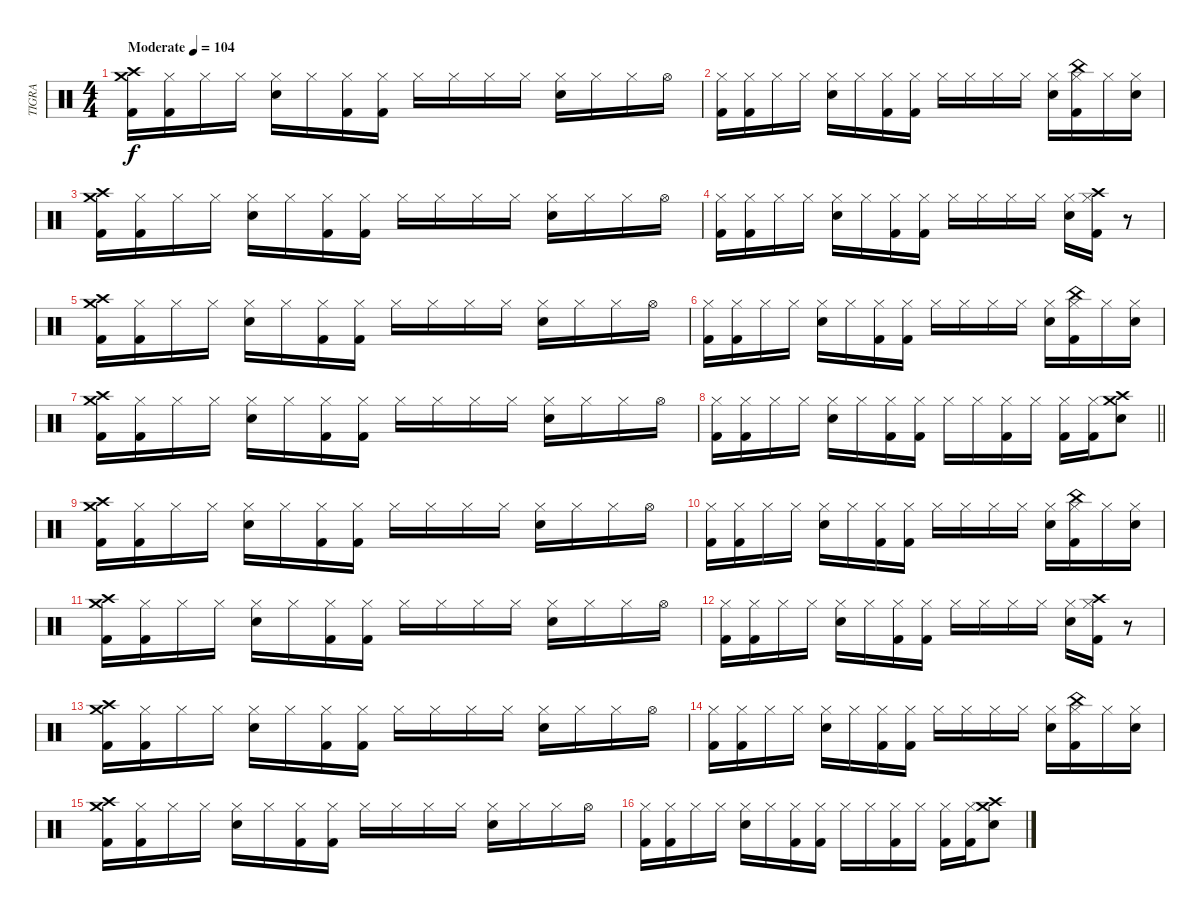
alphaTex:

\track ("TIGRA" "TIGRA") {instrument percussion}
\staff {score}
\articulation defaults
\ts (4 4)
\tempo (104 "Moderate")
\clef neutral
\ks c
("Crash medium (hit)" "Crash high (hit)" "Kick (hit) 2").16{dy f} ("Hi-Hat (closed)" "Kick (hit) 2").16 "Hi-Hat (closed)".16 "Hi-Hat (closed)".16 ("Hi-Hat (closed)" "Snare (hit) 2").16 "Hi-Hat (closed)".16 ("Hi-Hat (closed)" "Kick (hit) 2").16 ("Hi-Hat (closed)" "Kick (hit) 2").16 "Hi-Hat (closed)".16 "Hi-Hat (closed)".16 "Hi-Hat (closed)".16 "Hi-Hat (closed)".16 ("Hi-Hat (closed)" "Snare (hit) 2").16 "Hi-Hat (closed)".16 "Hi-Hat (closed)".16 "Hi-Hat (open)".16 |
("Hi-Hat (closed)" "Kick (hit) 2").16 ("Hi-Hat (closed)" "Kick (hit) 2").16 "Hi-Hat (closed)".16 "Hi-Hat (closed)".16 ("Hi-Hat (closed)" "Snare (hit) 2").16 "Hi-Hat (closed)".16 ("Hi-Hat (closed)" "Kick (hit) 2").16 ("Hi-Hat (closed)" "Kick (hit) 2").16 "Hi-Hat (closed)".16 "Hi-Hat (closed)".16 "Hi-Hat (closed)".16 "Hi-Hat (closed)".16 ("Hi-Hat (closed)" "Snare (hit) 2").16 ("Hi-Hat (closed)" "China (hit)" "Kick (hit) 2").16 "Hi-Hat (closed)".16 ("Hi-Hat (closed)" "Snare (hit) 2").16 |
("Crash medium (hit)" "Crash high (hit)" "Kick (hit) 2").16 ("Hi-Hat (closed)" "Kick (hit) 2").16 "Hi-Hat (closed)".16 "Hi-Hat (closed)".16 ("Hi-Hat (closed)" "Snare (hit) 2").16 "Hi-Hat (closed)".16 ("Hi-Hat (closed)" "Kick (hit) 2").16 ("Hi-Hat (closed)" "Kick (hit) 2").16 "Hi-Hat (closed)".16 "Hi-Hat (closed)".16 "Hi-Hat (closed)".16 "Hi-Hat (closed)".16 ("Hi-Hat (closed)" "Snare (hit) 2").16 "Hi-Hat (closed)".16 "Hi-Hat (closed)".16 "Hi-Hat (open)".16 |
("Hi-Hat (closed)" "Kick (hit) 2").16 ("Hi-Hat (closed)" "Kick (hit) 2").16 "Hi-Hat (closed)".16 "Hi-Hat (closed)".16 ("Hi-Hat (closed)" "Snare (hit) 2").16 "Hi-Hat (closed)".16 ("Hi-Hat (closed)" "Kick (hit) 2").16 ("Hi-Hat (closed)" "Kick (hit) 2").16 "Hi-Hat (closed)".16 "Hi-Hat (closed)".16 "Hi-Hat (closed)".16 "Hi-Hat (closed)".16 ("Hi-Hat (closed)" "Snare (hit) 2").16 ("Hi-Hat (closed)" "Crash high (hit)" "Kick (hit) 2").16 r.8 |
("Crash medium (hit)" "Crash high (hit)" "Kick (hit) 2").16 ("Hi-Hat (closed)" "Kick (hit) 2").16 "Hi-Hat (closed)".16 "Hi-Hat (closed)".16 ("Hi-Hat (closed)" "Snare (hit) 2").16 "Hi-Hat (closed)".16 ("Hi-Hat (closed)" "Kick (hit) 2").16 ("Hi-Hat (closed)" "Kick (hit) 2").16 "Hi-Hat (closed)".16 "Hi-Hat (closed)".16 "Hi-Hat (closed)".16 "Hi-Hat (closed)".16 ("Hi-Hat (closed)" "Snare (hit) 2").16 "Hi-Hat (closed)".16 "Hi-Hat (closed)".16 "Hi-Hat (open)".16 |
("Hi-Hat (closed)" "Kick (hit) 2").16 ("Hi-Hat (closed)" "Kick (hit) 2").16 "Hi-Hat (closed)".16 "Hi-Hat (closed)".16 ("Hi-Hat (closed)" "Snare (hit) 2").16 "Hi-Hat (closed)".16 ("Hi-Hat (closed)" "Kick (hit) 2").16 ("Hi-Hat (closed)" "Kick (hit) 2").16 "Hi-Hat (closed)".16 "Hi-Hat (closed)".16 "Hi-Hat (closed)".16 "Hi-Hat (closed)".16 ("Hi-Hat (closed)" "Snare (hit) 2").16 ("Hi-Hat (closed)" "China (hit)" "Kick (hit) 2").16 "Hi-Hat (closed)".16 ("Hi-Hat (closed)" "Snare (hit) 2").16 |
("Crash medium (hit)" "Crash high (hit)" "Kick (hit) 2").16 ("Hi-Hat (closed)" "Kick (hit) 2").16 "Hi-Hat (closed)".16 "Hi-Hat (closed)".16 ("Hi-Hat (closed)" "Snare (hit) 2").16 "Hi-Hat (closed)".16 ("Hi-Hat (closed)" "Kick (hit) 2").16 ("Hi-Hat (closed)" "Kick (hit) 2").16 "Hi-Hat (closed)".16 "Hi-Hat (closed)".16 "Hi-Hat (closed)".16 "Hi-Hat (closed)".16 ("Hi-Hat (closed)" "Snare (hit) 2").16 "Hi-Hat (closed)".16 "Hi-Hat (closed)".16 "Hi-Hat (open)".16 |
\barLineRight lightlight
("Hi-Hat (closed)" "Kick (hit) 2").16 ("Hi-Hat (closed)" "Kick (hit) 2").16 "Hi-Hat (closed)".16 "Hi-Hat (closed)".16 ("Hi-Hat (closed)" "Snare (hit) 2").16 "Hi-Hat (closed)".16 ("Hi-Hat (closed)" "Kick (hit) 2").16 ("Hi-Hat (closed)" "Kick (hit) 2").16 "Hi-Hat (closed)".16 "Hi-Hat (closed)".16 ("Hi-Hat (closed)" "Kick (hit) 2").16 "Hi-Hat (closed)".16 ("Hi-Hat (closed)" "Kick (hit) 2").16 ("Hi-Hat (closed)" "Kick (hit) 2").16 ("Crash medium (hit)" "Crash high (hit)" "Snare (hit) 2").8 |
("Crash medium (hit)" "Crash high (hit)" "Kick (hit) 2").16 ("Hi-Hat (closed)" "Kick (hit) 2").16 "Hi-Hat (closed)".16 "Hi-Hat (closed)".16 ("Hi-Hat (closed)" "Snare (hit) 2").16 "Hi-Hat (closed)".16 ("Hi-Hat (closed)" "Kick (hit) 2").16 ("Hi-Hat (closed)" "Kick (hit) 2").16 "Hi-Hat (closed)".16 "Hi-Hat (closed)".16 "Hi-Hat (closed)".16 "Hi-Hat (closed)".16 ("Hi-Hat (closed)" "Snare (hit) 2").16 "Hi-Hat (closed)".16 "Hi-Hat (closed)".16 "Hi-Hat (open)".16 |
("Hi-Hat (closed)" "Kick (hit) 2").16 ("Hi-Hat (closed)" "Kick (hit) 2").16 "Hi-Hat (closed)".16 "Hi-Hat (closed)".16 ("Hi-Hat (closed)" "Snare (hit) 2").16 "Hi-Hat (closed)".16 ("Hi-Hat (closed)" "Kick (hit) 2").16 ("Hi-Hat (closed)" "Kick (hit) 2").16 "Hi-Hat (closed)".16 "Hi-Hat (closed)".16 "Hi-Hat (closed)".16 "Hi-Hat (closed)".16 ("Hi-Hat (closed)" "Snare (hit) 2").16 ("Hi-Hat (closed)" "China (hit)" "Kick (hit) 2").16 "Hi-Hat (closed)".16 ("Hi-Hat (closed)" "Snare (hit) 2").16 |
("Crash medium (hit)" "Crash high (hit)" "Kick (hit) 2").16 ("Hi-Hat (closed)" "Kick (hit) 2").16 "Hi-Hat (closed)".16 "Hi-Hat (closed)".16 ("Hi-Hat (closed)" "Snare (hit) 2").16 "Hi-Hat (closed)".16 ("Hi-Hat (closed)" "Kick (hit) 2").16 ("Hi-Hat (closed)" "Kick (hit) 2").16 "Hi-Hat (closed)".16 "Hi-Hat (closed)".16 "Hi-Hat (closed)".16 "Hi-Hat (closed)".16 ("Hi-Hat (closed)" "Snare (hit) 2").16 "Hi-Hat (closed)".16 "Hi-Hat (closed)".16 "Hi-Hat (open)".16 |
("Hi-Hat (closed)" "Kick (hit) 2").16 ("Hi-Hat (closed)" "Kick (hit) 2").16 "Hi-Hat (closed)".16 "Hi-Hat (closed)".16 ("Hi-Hat (closed)" "Snare (hit) 2").16 "Hi-Hat (closed)".16 ("Hi-Hat (closed)" "Kick (hit) 2").16 ("Hi-Hat (closed)" "Kick (hit) 2").16 "Hi-Hat (closed)".16 "Hi-Hat (closed)".16 "Hi-Hat (closed)".16 "Hi-Hat (closed)".16 ("Hi-Hat (closed)" "Snare (hit) 2").16 ("Hi-Hat (closed)" "Crash high (hit)" "Kick (hit) 2").16 r.8 |
("Crash medium (hit)" "Crash high (hit)" "Kick (hit) 2").16 ("Hi-Hat (closed)" "Kick (hit) 2").16 "Hi-Hat (closed)".16 "Hi-Hat (closed)".16 ("Hi-Hat (closed)" "Snare (hit) 2").16 "Hi-Hat (closed)".16 ("Hi-Hat (closed)" "Kick (hit) 2").16 ("Hi-Hat (closed)" "Kick (hit) 2").16 "Hi-Hat (closed)".16 "Hi-Hat (closed)".16 "Hi-Hat (closed)".16 "Hi-Hat (closed)".16 ("Hi-Hat (closed)" "Snare (hit) 2").16 "Hi-Hat (closed)".16 "Hi-Hat (closed)".16 "Hi-Hat (open)".16 |
("Hi-Hat (closed)" "Kick (hit) 2").16 ("Hi-Hat (closed)" "Kick (hit) 2").16 "Hi-Hat (closed)".16 "Hi-Hat (closed)".16 ("Hi-Hat (closed)" "Snare (hit) 2").16 "Hi-Hat (closed)".16 ("Hi-Hat (closed)" "Kick (hit) 2").16 ("Hi-Hat (closed)" "Kick (hit) 2").16 "Hi-Hat (closed)".16 "Hi-Hat (closed)".16 "Hi-Hat (closed)".16 "Hi-Hat (closed)".16 ("Hi-Hat (closed)" "Snare (hit) 2").16 ("Hi-Hat (closed)" "China (hit)" "Kick (hit) 2").16 "Hi-Hat (closed)".16 ("Hi-Hat (closed)" "Snare (hit) 2").16 |
("Crash medium (hit)" "Crash high (hit)" "Kick (hit) 2").16 ("Hi-Hat (closed)" "Kick (hit) 2").16 "Hi-Hat (closed)".16 "Hi-Hat (closed)".16 ("Hi-Hat (closed)" "Snare (hit) 2").16 "Hi-Hat (closed)".16 ("Hi-Hat (closed)" "Kick (hit) 2").16 ("Hi-Hat (closed)" "Kick (hit) 2").16 "Hi-Hat (closed)".16 "Hi-Hat (closed)".16 "Hi-Hat (closed)".16 "Hi-Hat (closed)".16 ("Hi-Hat (closed)" "Snare (hit) 2").16 "Hi-Hat (closed)".16 "Hi-Hat (closed)".16 "Hi-Hat (open)".16 |
("Hi-Hat (closed)" "Kick (hit) 2").16 ("Hi-Hat (closed)" "Kick (hit) 2").16 "Hi-Hat (closed)".16 "Hi-Hat (closed)".16 ("Hi-Hat (closed)" "Snare (hit) 2").16 "Hi-Hat (closed)".16 ("Hi-Hat (closed)" "Kick (hit) 2").16 ("Hi-Hat (closed)" "Kick (hit) 2").16 "Hi-Hat (closed)".16 "Hi-Hat (closed)".16 ("Hi-Hat (closed)" "Kick (hit) 2").16 "Hi-Hat (closed)".16 ("Hi-Hat (closed)" "Kick (hit) 2").16 ("Hi-Hat (closed)" "Kick (hit) 2").16 ("Crash medium (hit)" "Crash high (hit)" "Snare (hit) 2").8
